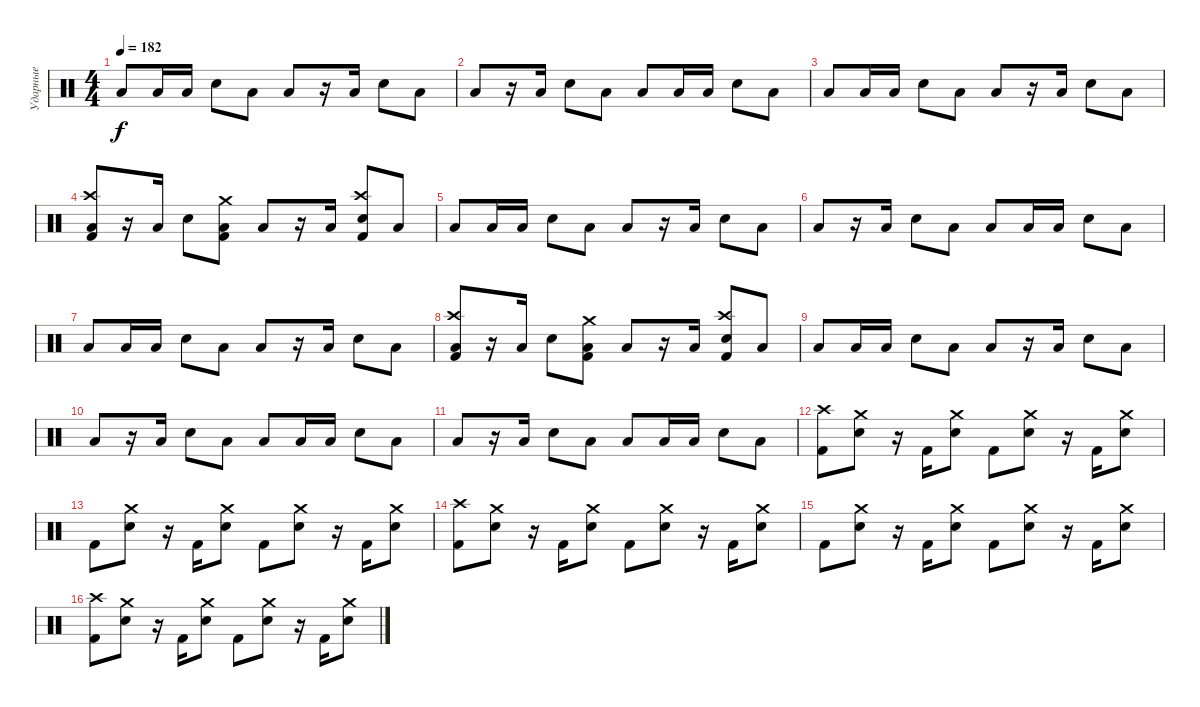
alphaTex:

\track ("Ударные" "Ударные") {instrument percussion}
\staff {score}
\articulation defaults
\ts (4 4)
\tempo 182
\clef neutral
\ks c "Low Floor Tom (hit)".8{dy f} "Low Floor Tom (hit)".16 "Low Floor Tom (hit)".16 "Electric Snare (hit)".8 "Low Floor Tom (hit)".8 "Low Floor Tom (hit)".8
r.16 "Low Floor Tom (hit)".16 "Electric Snare (hit)".8 "Low Floor Tom (hit)".8 |
"Low Floor Tom (hit)".8 r.16 "Low Floor Tom (hit)".16 "Electric Snare (hit)".8 "Low Floor Tom (hit)".8 "Low Floor Tom (hit)".8 "Low Floor Tom (hit)".16 "Low Floor Tom (hit)".16 "Electric Snare (hit)".8 "Low Floor Tom (hit)".8 |
"Low Floor Tom (hit)".8 "Low Floor Tom (hit)".16 "Low Floor Tom (hit)".16 "Electric Snare (hit)".8 "Low Floor Tom (hit)".8 "Low Floor Tom (hit)".8 r.16 "Low Floor Tom (hit)".16 "Electric Snare (hit)".8 "Low Floor Tom (hit)".8 |
("Crash high (hit)" "Low Floor Tom (hit)" "Kick (hit) 2").8 r.16 "Low Floor Tom (hit)".16 "Electric Snare (hit)".8 ("Crash medium (hit)" "Low Floor Tom (hit)" "Kick (hit) 2").8 "Low Floor Tom (hit)".8 r.16 "Low Floor Tom (hit)".16 ("Crash high (hit)" "Electric Snare (hit)" "Kick (hit) 2").8 "Low Floor Tom (hit)".8 |
"Low Floor Tom (hit)".8 "Low Floor Tom (hit)".16 "Low Floor Tom (hit)".16 "Electric Snare (hit)".8 "Low Floor Tom (hit)".8 "Low Floor Tom (hit)".8 r.16 "Low Floor Tom (hit)".16 "Electric Snare (hit)".8 "Low Floor Tom (hit)".8 |
"Low Floor Tom (hit)".8 r.16 "Low Floor Tom (hit)".16 "Electric Snare (hit)".8 "Low Floor Tom (hit)".8 "Low Floor Tom (hit)".8 "Low Floor Tom (hit)".16 "Low Floor Tom (hit)".16 "Electric Snare (hit)".8 "Low Floor Tom (hit)".8 |
"Low Floor Tom (hit)".8 "Low Floor Tom (hit)".16 "Low Floor Tom (hit)".16 "Electric Snare (hit)".8 "Low Floor Tom (hit)".8 "Low Floor Tom (hit)".8 r.16 "Low Floor Tom (hit)".16 "Electric Snare (hit)".8 "Low Floor Tom (hit)".8 |
("Crash high (hit)" "Low Floor Tom (hit)" "Kick (hit) 2").8 r.16 "Low Floor Tom (hit)".16 "Electric Snare (hit)".8 ("Crash medium (hit)" "Low Floor Tom (hit)" "Kick (hit) 2").8 "Low Floor Tom (hit)".8 r.16 "Low Floor Tom (hit)".16 ("Crash high (hit)" "Electric Snare (hit)" "Kick (hit) 2").8 "Low Floor Tom (hit)".8 |
"Low Floor Tom (hit)".8 "Low Floor Tom (hit)".16 "Low Floor Tom (hit)".16 "Electric Snare (hit)".8 "Low Floor Tom (hit)".8 "Low Floor Tom (hit)".8 r.16 "Low Floor Tom (hit)".16 "Electric Snare (hit)".8 "Low Floor Tom (hit)".8 |
"Low Floor Tom (hit)".8 r.16 "Low Floor Tom (hit)".16 "Electric Snare (hit)".8 "Low Floor Tom (hit)".8 "Low Floor Tom (hit)".8 "Low Floor Tom (hit)".16 "Low Floor Tom (hit)".16 "Electric Snare (hit)".8 "Low Floor Tom (hit)".8 |
"Low Floor Tom (hit)".8 r.16 "Low Floor Tom (hit)".16 "Electric Snare (hit)".8 "Low Floor Tom (hit)".8 "Low Floor Tom (hit)".8 "Low Floor Tom (hit)".16 "Low Floor Tom (hit)".16 "Electric Snare (hit)".8 "Low Floor Tom (hit)".8 |
("Crash high (hit)" "Kick (hit) 2").8 ("Crash medium (hit)" "Electric Snare (hit)").8 r.16 "Kick (hit) 2".16 ("Crash medium (hit)" "Electric Snare (hit)").8 "Kick (hit) 2".8 ("Crash medium (hit)" "Electric Snare (hit)").8 r.16 "Kick (hit) 2".16 ("Crash medium (hit)" "Electric Snare (hit)").8 |
"Kick (hit) 2".8 ("Crash medium (hit)" "Electric Snare (hit)").8 r.16 "Kick (hit) 2".16 ("Crash medium (hit)" "Electric Snare (hit)").8 "Kick (hit) 2".8 ("Crash medium (hit)" "Electric Snare (hit)").8 r.16 "Kick (hit) 2".16 ("Crash medium (hit)" "Electric Snare (hit)").8 |
("Crash high (hit)" "Kick (hit) 2").8 ("Crash medium (hit)" "Electric Snare (hit)").8 r.16 "Kick (hit) 2".16 ("Crash medium (hit)" "Electric Snare (hit)").8 "Kick (hit) 2".8 ("Crash medium (hit)" "Electric Snare (hit)").8 r.16 "Kick (hit) 2".16 ("Crash medium (hit)" "Electric Snare (hit)").8 |
"Kick (hit) 2".8 ("Crash medium (hit)" "Electric Snare (hit)").8 r.16 "Kick (hit) 2".16 ("Crash medium (hit)" "Electric Snare (hit)").8 "Kick (hit) 2".8 ("Crash medium (hit)" "Electric Snare (hit)").8 r.16 "Kick (hit) 2".16 ("Crash medium (hit)" "Electric Snare (hit)").8 |
("Crash high (hit)" "Kick (hit) 2").8 ("Crash medium (hit)" "Electric Snare (hit)").8 r.16 "Kick (hit) 2".16 ("Crash medium (hit)" "Electric Snare (hit)").8 "Kick (hit) 2".8 ("Crash medium (hit)" "Electric Snare (hit)").8 r.16 "Kick (hit) 2".16 ("Crash medium (hit)" "Electric Snare (hit)").8
